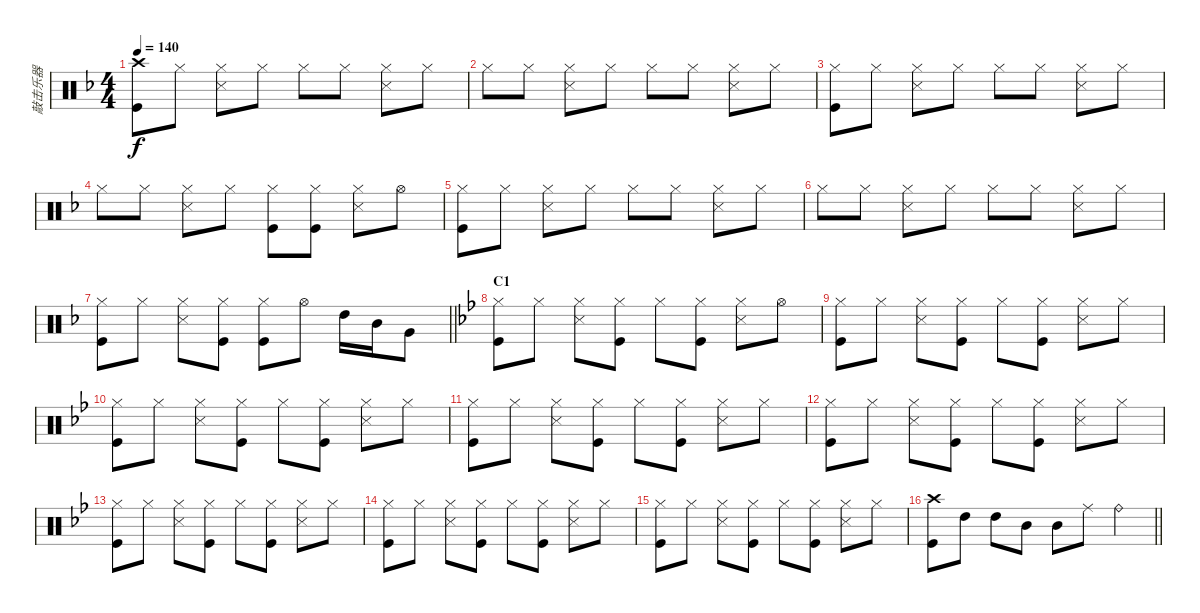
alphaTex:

\track ("敲击乐器" "敲击乐器") {instrument percussion}
\staff {score}
\articulation defaults
\ts (4 4)
\tempo 140
\clef neutral
\ks f
("Crash high (hit)" "Kick (hit)").8{dy f} "Hi-Hat (closed)".8 ("Hi-Hat (closed)" "Snare (side stick) 3").8 "Hi-Hat (closed)".8 "Hi-Hat (closed)".8 "Hi-Hat (closed)".8 ("Hi-Hat (closed)" "Snare (side stick) 3").8 "Hi-Hat (closed)".8 |
"Hi-Hat (closed)".8 "Hi-Hat (closed)".8 ("Hi-Hat (closed)" "Snare (side stick) 3").8 "Hi-Hat (closed)".8 "Hi-Hat (closed)".8 "Hi-Hat (closed)".8 ("Hi-Hat (closed)" "Snare (side stick) 3").8 "Hi-Hat (closed)".8 |
("Hi-Hat (closed)" "Kick (hit)").8 "Hi-Hat (closed)".8 ("Hi-Hat (closed)" "Snare (side stick) 3").8 "Hi-Hat (closed)".8 "Hi-Hat (closed)".8 "Hi-Hat (closed)".8 ("Hi-Hat (closed)" "Snare (side stick) 3").8 "Hi-Hat (closed)".8 |
"Hi-Hat (closed)".8 "Hi-Hat (closed)".8 ("Hi-Hat (closed)" "Snare (side stick) 3").8 "Hi-Hat (closed)".8 ("Hi-Hat (closed)" "Kick (hit)").8 ("Hi-Hat (closed)" "Kick (hit)").8 ("Hi-Hat (closed)" "Snare (side stick) 3").8 "Hi-Hat (open)".8 |
("Hi-Hat (closed)" "Kick (hit)").8 "Hi-Hat (closed)".8 ("Hi-Hat (closed)" "Snare (side stick) 3").8 "Hi-Hat (closed)".8 "Hi-Hat (closed)".8 "Hi-Hat (closed)".8 ("Hi-Hat (closed)" "Snare (side stick) 3").8 "Hi-Hat (closed)".8 |
"Hi-Hat (closed)".8 "Hi-Hat (closed)".8 ("Hi-Hat (closed)" "Snare (side stick) 3").8 "Hi-Hat (closed)".8 "Hi-Hat (closed)".8 "Hi-Hat (closed)".8 ("Hi-Hat (closed)" "Snare (side stick) 3").8 "Hi-Hat (closed)".8 |
\barLineRight lightlight
("Hi-Hat (closed)" "Kick (hit)").8 "Hi-Hat (closed)".8 ("Hi-Hat (closed)" "Snare (side stick) 3").8 ("Hi-Hat (closed)" "Kick (hit)").8 ("Hi-Hat (closed)" "Kick (hit)").8 "Hi-Hat (open)".8 "High Tom (hit)".16 "Mid Tom (hit)".16 "Very Low Tom (hit)".8 |
\section ("" "C1")
\ks bb
("Hi-Hat (closed)" "Kick (hit)").8 "Hi-Hat (closed)".8 ("Hi-Hat (closed)" "Snare (side stick) 3").8 ("Hi-Hat (closed)" "Kick (hit)").8 "Hi-Hat (closed)".8 ("Hi-Hat (closed)" "Kick (hit)").8 ("Hi-Hat (closed)" "Snare (side stick) 3").8 "Hi-Hat (open)".8 |
("Hi-Hat (closed)" "Kick (hit)").8 "Hi-Hat (closed)".8 ("Hi-Hat (closed)" "Snare (side stick) 3").8 ("Hi-Hat (closed)" "Kick (hit)").8 "Hi-Hat (closed)".8 ("Hi-Hat (closed)" "Kick (hit)").8 ("Hi-Hat (closed)" "Snare (side stick) 3").8 "Hi-Hat (closed)".8 |
("Hi-Hat (closed)" "Kick (hit)").8 "Hi-Hat (closed)".8 ("Hi-Hat (closed)" "Snare (side stick) 3").8 ("Hi-Hat (closed)" "Kick (hit)").8 "Hi-Hat (closed)".8 ("Hi-Hat (closed)" "Kick (hit)").8 ("Hi-Hat (closed)" "Snare (side stick) 3").8 "Hi-Hat (closed)".8 |
("Hi-Hat (closed)" "Kick (hit)").8 "Hi-Hat (closed)".8 ("Hi-Hat (closed)" "Snare (side stick) 3").8 ("Hi-Hat (closed)" "Kick (hit)").8 "Hi-Hat (closed)".8 ("Hi-Hat (closed)" "Kick (hit)").8 ("Hi-Hat (closed)" "Snare (side stick) 3").8 "Hi-Hat (closed)".8 |
("Hi-Hat (closed)" "Kick (hit)").8 "Hi-Hat (closed)".8 ("Hi-Hat (closed)" "Snare (side stick) 3").8 ("Hi-Hat (closed)" "Kick (hit)").8 "Hi-Hat (closed)".8 ("Hi-Hat (closed)" "Kick (hit)").8 ("Hi-Hat (closed)" "Snare (side stick) 3").8 "Hi-Hat (closed)".8 |
("Hi-Hat (closed)" "Kick (hit)").8 "Hi-Hat (closed)".8 ("Hi-Hat (closed)" "Snare (side stick) 3").8 ("Hi-Hat (closed)" "Kick (hit)").8 "Hi-Hat (closed)".8 ("Hi-Hat (closed)" "Kick (hit)").8 ("Hi-Hat (closed)" "Snare (side stick) 3").8 "Hi-Hat (closed)".8 |
("Hi-Hat (closed)" "Kick (hit)").8 "Hi-Hat (closed)".8 ("Hi-Hat (closed)" "Snare (side stick) 3").8 ("Hi-Hat (closed)" "Kick (hit)").8 "Hi-Hat (closed)".8 ("Hi-Hat (closed)" "Kick (hit)").8 ("Hi-Hat (closed)" "Snare (side stick) 3").8 "Hi-Hat (closed)".8 |
("Hi-Hat (closed)" "Kick (hit)").8 "Hi-Hat (closed)".8 ("Hi-Hat (closed)" "Snare (side stick) 3").8 ("Hi-Hat (closed)" "Kick (hit)").8 "Hi-Hat (closed)".8 ("Hi-Hat (closed)" "Kick (hit)").8 ("Hi-Hat (closed)" "Snare (side stick) 3").8 "Hi-Hat (closed)".8 |
\barLineRight lightlight
("Crash high (hit)" "Kick (hit)").8 "High Tom (hit)".8 "High Tom (hit)".8 "Mid Tom (hit)".8 "Mid Tom (hit)".8 "Ride (middle)".8 "Ride (bell)".4
